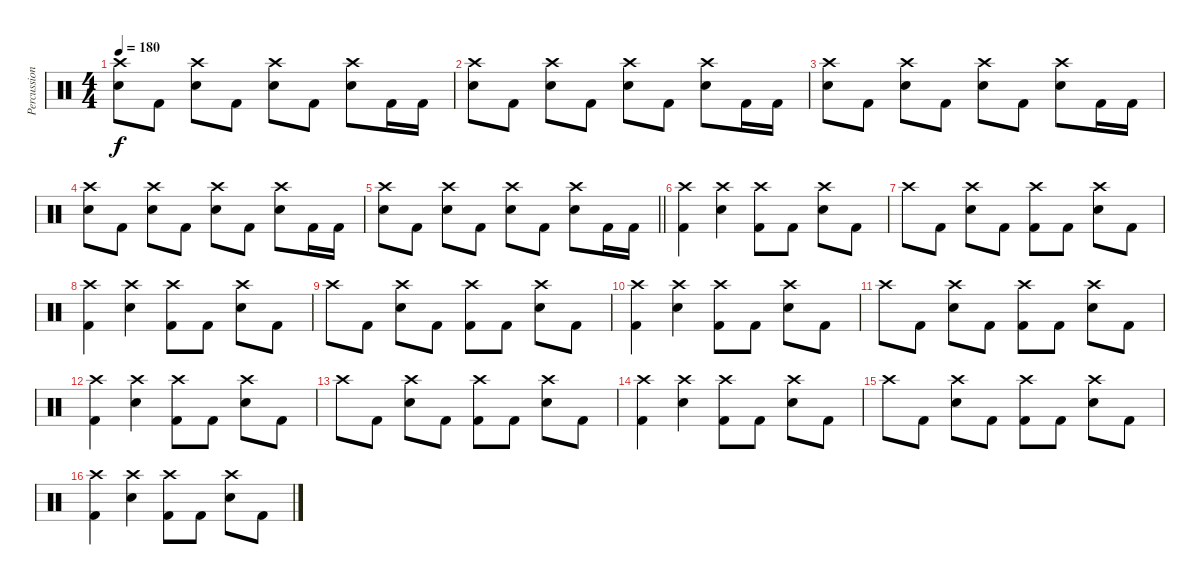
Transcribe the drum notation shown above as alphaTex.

\track ("Percussion" "Percussion") {instrument percussion}
\staff {score}
\articulation defaults
\ts (4 4)
\tempo 180
\clef neutral
\ks c
("Crash high (hit)" "Snare (hit) 2").8{dy f} "Kick (hit) 2".8 ("Crash high (hit)" "Snare (hit) 2").8 "Kick (hit) 2".8 ("Crash high (hit)" "Snare (hit) 2").8 "Kick (hit) 2".8 ("Crash high (hit)" "Snare (hit) 2").8 "Kick (hit) 2".16 "Kick (hit) 2".16 |
("Crash high (hit)" "Snare (hit) 2").8 "Kick (hit) 2".8 ("Crash high (hit)" "Snare (hit) 2").8 "Kick (hit) 2".8 ("Crash high (hit)" "Snare (hit) 2").8 "Kick (hit) 2".8 ("Crash high (hit)" "Snare (hit) 2").8 "Kick (hit) 2".16 "Kick (hit) 2".16 |
("Crash high (hit)" "Snare (hit) 2").8 "Kick (hit) 2".8 ("Crash high (hit)" "Snare (hit) 2").8 "Kick (hit) 2".8 ("Crash high (hit)" "Snare (hit) 2").8 "Kick (hit) 2".8 ("Crash high (hit)" "Snare (hit) 2").8 "Kick (hit) 2".16 "Kick (hit) 2".16 |
("Crash high (hit)" "Snare (hit) 2").8 "Kick (hit) 2".8 ("Crash high (hit)" "Snare (hit) 2").8 "Kick (hit) 2".8 ("Crash high (hit)" "Snare (hit) 2").8 "Kick (hit) 2".8 ("Crash high (hit)" "Snare (hit) 2").8 "Kick (hit) 2".16 "Kick (hit) 2".16 |
\barLineRight lightlight
("Crash high (hit)" "Snare (hit) 2").8 "Kick (hit) 2".8 ("Crash high (hit)" "Snare (hit) 2").8 "Kick (hit) 2".8 ("Crash high (hit)" "Snare (hit) 2").8 "Kick (hit) 2".8 ("Crash high (hit)" "Snare (hit) 2").8 "Kick (hit) 2".16 "Kick (hit) 2".16 |
\section ("" "")
("Crash high (hit)" "Kick (hit) 2").4 ("Crash high (hit)" "Snare (hit) 2").4 ("Crash high (hit)" "Kick (hit) 2").8 "Kick (hit) 2".8 ("Crash high (hit)" "Snare (hit) 2").8 "Kick (hit) 2".8 |
"Crash high (hit)".8 "Kick (hit) 2".8 ("Crash high (hit)" "Snare (hit) 2").8 "Kick (hit) 2".8 ("Crash high (hit)" "Kick (hit) 2").8 "Kick (hit) 2".8 ("Crash high (hit)" "Snare (hit) 2").8 "Kick (hit) 2".8 |
("Crash high (hit)" "Kick (hit) 2").4 ("Crash high (hit)" "Snare (hit) 2").4 ("Crash high (hit)" "Kick (hit) 2").8 "Kick (hit) 2".8 ("Crash high (hit)" "Snare (hit) 2").8 "Kick (hit) 2".8 |
"Crash high (hit)".8 "Kick (hit) 2".8 ("Crash high (hit)" "Snare (hit) 2").8 "Kick (hit) 2".8 ("Crash high (hit)" "Kick (hit) 2").8 "Kick (hit) 2".8 ("Crash high (hit)" "Snare (hit) 2").8 "Kick (hit) 2".8 |
("Crash high (hit)" "Kick (hit) 2").4 ("Crash high (hit)" "Snare (hit) 2").4 ("Crash high (hit)" "Kick (hit) 2").8 "Kick (hit) 2".8 ("Crash high (hit)" "Snare (hit) 2").8 "Kick (hit) 2".8 |
"Crash high (hit)".8 "Kick (hit) 2".8 ("Crash high (hit)" "Snare (hit) 2").8 "Kick (hit) 2".8 ("Crash high (hit)" "Kick (hit) 2").8 "Kick (hit) 2".8 ("Crash high (hit)" "Snare (hit) 2").8 "Kick (hit) 2".8 |
("Crash high (hit)" "Kick (hit) 2").4 ("Crash high (hit)" "Snare (hit) 2").4 ("Crash high (hit)" "Kick (hit) 2").8 "Kick (hit) 2".8 ("Crash high (hit)" "Snare (hit) 2").8 "Kick (hit) 2".8 |
"Crash high (hit)".8 "Kick (hit) 2".8 ("Crash high (hit)" "Snare (hit) 2").8 "Kick (hit) 2".8 ("Crash high (hit)" "Kick (hit) 2").8 "Kick (hit) 2".8 ("Crash high (hit)" "Snare (hit) 2").8 "Kick (hit) 2".8 |
("Crash high (hit)" "Kick (hit) 2").4 ("Crash high (hit)" "Snare (hit) 2").4 ("Crash high (hit)" "Kick (hit) 2").8 "Kick (hit) 2".8 ("Crash high (hit)" "Snare (hit) 2").8 "Kick (hit) 2".8 |
"Crash high (hit)".8 "Kick (hit) 2".8 ("Crash high (hit)" "Snare (hit) 2").8 "Kick (hit) 2".8 ("Crash high (hit)" "Kick (hit) 2").8 "Kick (hit) 2".8 ("Crash high (hit)" "Snare (hit) 2").8 "Kick (hit) 2".8 |
("Crash high (hit)" "Kick (hit) 2").4 ("Crash high (hit)" "Snare (hit) 2").4 ("Crash high (hit)" "Kick (hit) 2").8 "Kick (hit) 2".8 ("Crash high (hit)" "Snare (hit) 2").8 "Kick (hit) 2".8
